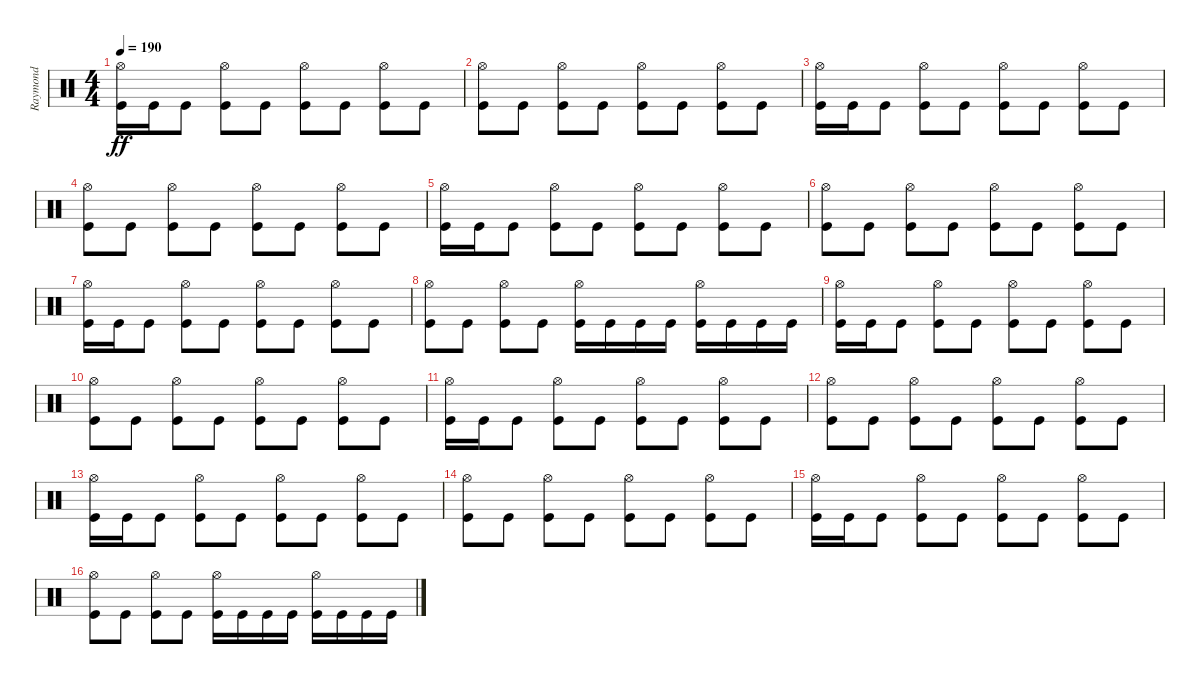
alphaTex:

\track ("Raymond" "Raymond") {instrument percussion}
\staff {score}
\articulation defaults
\ts (4 4)
\tempo 190
\clef neutral
\ks c
("Kick (hit)" "Hi-Hat (open)").16{dy ff} "Kick (hit)".16 "Kick (hit)".8 ("Kick (hit)" "Hi-Hat (open)").8 "Kick (hit)".8 ("Kick (hit)" "Hi-Hat (open)").8 "Kick (hit)".8 ("Kick (hit)" "Hi-Hat (open)").8 "Kick (hit)".8 |
("Kick (hit)" "Hi-Hat (open)").8 "Kick (hit)".8 ("Kick (hit)" "Hi-Hat (open)").8 "Kick (hit)".8 ("Kick (hit)" "Hi-Hat (open)").8 "Kick (hit)".8 ("Kick (hit)" "Hi-Hat (open)").8 "Kick (hit)".8 |
("Kick (hit)" "Hi-Hat (open)").16 "Kick (hit)".16 "Kick (hit)".8 ("Kick (hit)" "Hi-Hat (open)").8 "Kick (hit)".8 ("Kick (hit)" "Hi-Hat (open)").8 "Kick (hit)".8 ("Kick (hit)" "Hi-Hat (open)").8 "Kick (hit)".8 |
("Kick (hit)" "Hi-Hat (open)").8 "Kick (hit)".8 ("Kick (hit)" "Hi-Hat (open)").8 "Kick (hit)".8 ("Kick (hit)" "Hi-Hat (open)").8 "Kick (hit)".8 ("Kick (hit)" "Hi-Hat (open)").8 "Kick (hit)".8 |
("Kick (hit)" "Hi-Hat (open)").16 "Kick (hit)".16 "Kick (hit)".8 ("Kick (hit)" "Hi-Hat (open)").8 "Kick (hit)".8 ("Kick (hit)" "Hi-Hat (open)").8 "Kick (hit)".8 ("Kick (hit)" "Hi-Hat (open)").8 "Kick (hit)".8 |
("Kick (hit)" "Hi-Hat (open)").8 "Kick (hit)".8 ("Kick (hit)" "Hi-Hat (open)").8 "Kick (hit)".8 ("Kick (hit)" "Hi-Hat (open)").8 "Kick (hit)".8 ("Kick (hit)" "Hi-Hat (open)").8 "Kick (hit)".8 |
("Kick (hit)" "Hi-Hat (open)").16 "Kick (hit)".16 "Kick (hit)".8 ("Kick (hit)" "Hi-Hat (open)").8 "Kick (hit)".8 ("Kick (hit)" "Hi-Hat (open)").8 "Kick (hit)".8 ("Kick (hit)" "Hi-Hat (open)").8 "Kick (hit)".8 |
("Kick (hit)" "Hi-Hat (open)").8 "Kick (hit)".8 ("Kick (hit)" "Hi-Hat (open)").8 "Kick (hit)".8 ("Kick (hit)" "Hi-Hat (open)").16 "Kick (hit)".16 "Kick (hit)".16 "Kick (hit)".16 ("Kick (hit)" "Hi-Hat (open)").16 "Kick (hit)".16 "Kick (hit)".16 "Kick (hit)".16 |
("Kick (hit)" "Hi-Hat (open)").16 "Kick (hit)".16 "Kick (hit)".8 ("Kick (hit)" "Hi-Hat (open)").8 "Kick (hit)".8 ("Kick (hit)" "Hi-Hat (open)").8 "Kick (hit)".8 ("Kick (hit)" "Hi-Hat (open)").8 "Kick (hit)".8 |
("Kick (hit)" "Hi-Hat (open)").8 "Kick (hit)".8 ("Kick (hit)" "Hi-Hat (open)").8 "Kick (hit)".8 ("Kick (hit)" "Hi-Hat (open)").8 "Kick (hit)".8 ("Kick (hit)" "Hi-Hat (open)").8 "Kick (hit)".8 |
("Kick (hit)" "Hi-Hat (open)").16 "Kick (hit)".16 "Kick (hit)".8 ("Kick (hit)" "Hi-Hat (open)").8 "Kick (hit)".8 ("Kick (hit)" "Hi-Hat (open)").8 "Kick (hit)".8 ("Kick (hit)" "Hi-Hat (open)").8 "Kick (hit)".8 |
("Kick (hit)" "Hi-Hat (open)").8 "Kick (hit)".8 ("Kick (hit)" "Hi-Hat (open)").8 "Kick (hit)".8 ("Kick (hit)" "Hi-Hat (open)").8 "Kick (hit)".8 ("Kick (hit)" "Hi-Hat (open)").8 "Kick (hit)".8 |
("Kick (hit)" "Hi-Hat (open)").16 "Kick (hit)".16 "Kick (hit)".8 ("Kick (hit)" "Hi-Hat (open)").8 "Kick (hit)".8 ("Kick (hit)" "Hi-Hat (open)").8 "Kick (hit)".8 ("Kick (hit)" "Hi-Hat (open)").8 "Kick (hit)".8 |
("Kick (hit)" "Hi-Hat (open)").8 "Kick (hit)".8 ("Kick (hit)" "Hi-Hat (open)").8 "Kick (hit)".8 ("Kick (hit)" "Hi-Hat (open)").8 "Kick (hit)".8 ("Kick (hit)" "Hi-Hat (open)").8 "Kick (hit)".8 |
("Kick (hit)" "Hi-Hat (open)").16 "Kick (hit)".16 "Kick (hit)".8 ("Kick (hit)" "Hi-Hat (open)").8 "Kick (hit)".8 ("Kick (hit)" "Hi-Hat (open)").8 "Kick (hit)".8 ("Kick (hit)" "Hi-Hat (open)").8 "Kick (hit)".8 |
("Kick (hit)" "Hi-Hat (open)").8 "Kick (hit)".8 ("Kick (hit)" "Hi-Hat (open)").8 "Kick (hit)".8 ("Kick (hit)" "Hi-Hat (open)").16 "Kick (hit)".16 "Kick (hit)".16 "Kick (hit)".16 ("Kick (hit)" "Hi-Hat (open)").16 "Kick (hit)".16 "Kick (hit)".16 "Kick (hit)".16
